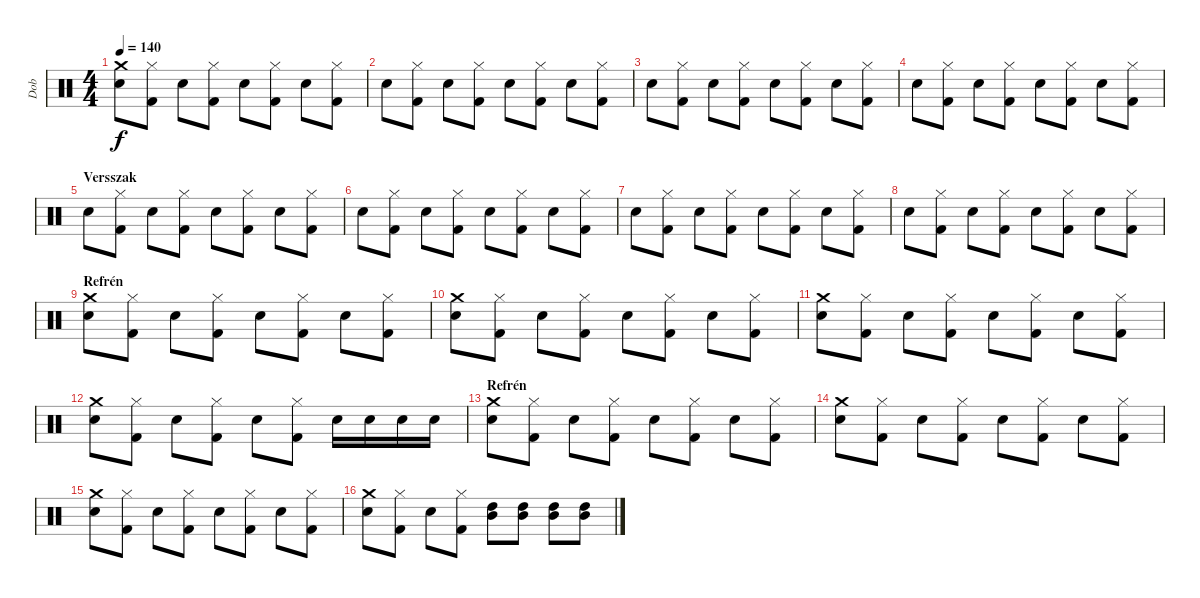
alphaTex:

\track ("Dob" "Dob") {instrument percussion}
\staff {score}
\articulation defaults
\ts (4 4)
\tempo 140
\clef neutral
\ks c
("Electric Snare (hit)" "Crash medium (hit)").8{dy f} ("Kick (hit) 2" "Hi-Hat (closed)").8 "Electric Snare (hit)".8 ("Kick (hit) 2" "Hi-Hat (closed)").8 "Electric Snare (hit)".8 ("Kick (hit) 2" "Hi-Hat (closed)").8 "Electric Snare (hit)".8 ("Kick (hit) 2" "Hi-Hat (closed)").8 |
"Electric Snare (hit)".8 ("Kick (hit) 2" "Hi-Hat (closed)").8 "Electric Snare (hit)".8 ("Kick (hit) 2" "Hi-Hat (closed)").8 "Electric Snare (hit)".8 ("Kick (hit) 2" "Hi-Hat (closed)").8 "Electric Snare (hit)".8 ("Kick (hit) 2" "Hi-Hat (closed)").8 |
"Electric Snare (hit)".8 ("Kick (hit) 2" "Hi-Hat (closed)").8 "Electric Snare (hit)".8 ("Kick (hit) 2" "Hi-Hat (closed)").8 "Electric Snare (hit)".8 ("Kick (hit) 2" "Hi-Hat (closed)").8 "Electric Snare (hit)".8 ("Kick (hit) 2" "Hi-Hat (closed)").8 |
"Electric Snare (hit)".8 ("Kick (hit) 2" "Hi-Hat (closed)").8 "Electric Snare (hit)".8 ("Kick (hit) 2" "Hi-Hat (closed)").8 "Electric Snare (hit)".8 ("Kick (hit) 2" "Hi-Hat (closed)").8 "Electric Snare (hit)".8 ("Kick (hit) 2" "Hi-Hat (closed)").8 |
\section ("" "Versszak")
"Electric Snare (hit)".8 ("Kick (hit) 2" "Hi-Hat (closed)").8 "Electric Snare (hit)".8 ("Kick (hit) 2" "Hi-Hat (closed)").8 "Electric Snare (hit)".8 ("Kick (hit) 2" "Hi-Hat (closed)").8 "Electric Snare (hit)".8 ("Kick (hit) 2" "Hi-Hat (closed)").8 |
"Electric Snare (hit)".8 ("Kick (hit) 2" "Hi-Hat (closed)").8 "Electric Snare (hit)".8 ("Kick (hit) 2" "Hi-Hat (closed)").8 "Electric Snare (hit)".8 ("Kick (hit) 2" "Hi-Hat (closed)").8 "Electric Snare (hit)".8 ("Kick (hit) 2" "Hi-Hat (closed)").8 |
"Electric Snare (hit)".8 ("Kick (hit) 2" "Hi-Hat (closed)").8 "Electric Snare (hit)".8 ("Kick (hit) 2" "Hi-Hat (closed)").8 "Electric Snare (hit)".8 ("Kick (hit) 2" "Hi-Hat (closed)").8 "Electric Snare (hit)".8 ("Kick (hit) 2" "Hi-Hat (closed)").8 |
"Electric Snare (hit)".8 ("Kick (hit) 2" "Hi-Hat (closed)").8 "Electric Snare (hit)".8 ("Kick (hit) 2" "Hi-Hat (closed)").8 "Electric Snare (hit)".8 ("Kick (hit) 2" "Hi-Hat (closed)").8 "Electric Snare (hit)".8 ("Kick (hit) 2" "Hi-Hat (closed)").8 |
\section ("" "Refrén")
("Electric Snare (hit)" "Crash medium (hit)").8 ("Kick (hit) 2" "Hi-Hat (closed)").8 "Electric Snare (hit)".8 ("Kick (hit) 2" "Hi-Hat (closed)").8 "Electric Snare (hit)".8 ("Kick (hit) 2" "Hi-Hat (closed)").8 "Electric Snare (hit)".8 ("Kick (hit) 2" "Hi-Hat (closed)").8 |
("Electric Snare (hit)" "Crash medium (hit)").8 ("Kick (hit) 2" "Hi-Hat (closed)").8 "Electric Snare (hit)".8 ("Kick (hit) 2" "Hi-Hat (closed)").8 "Electric Snare (hit)".8 ("Kick (hit) 2" "Hi-Hat (closed)").8 "Electric Snare (hit)".8 ("Kick (hit) 2" "Hi-Hat (closed)").8 |
("Electric Snare (hit)" "Crash medium (hit)").8 ("Kick (hit) 2" "Hi-Hat (closed)").8 "Electric Snare (hit)".8 ("Kick (hit) 2" "Hi-Hat (closed)").8 "Electric Snare (hit)".8 ("Kick (hit) 2" "Hi-Hat (closed)").8 "Electric Snare (hit)".8 ("Kick (hit) 2" "Hi-Hat (closed)").8 |
("Electric Snare (hit)" "Crash medium (hit)").8 ("Kick (hit) 2" "Hi-Hat (closed)").8 "Electric Snare (hit)".8 ("Kick (hit) 2" "Hi-Hat (closed)").8 "Electric Snare (hit)".8 ("Kick (hit) 2" "Hi-Hat (closed)").8 "Electric Snare (hit)".16 "Electric Snare (hit)".16 "Electric Snare (hit)".16 "Electric Snare (hit)".16 |
\section ("" "Refrén")
("Electric Snare (hit)" "Crash medium (hit)").8 ("Kick (hit) 2" "Hi-Hat (closed)").8 "Electric Snare (hit)".8 ("Kick (hit) 2" "Hi-Hat (closed)").8 "Electric Snare (hit)".8 ("Kick (hit) 2" "Hi-Hat (closed)").8 "Electric Snare (hit)".8 ("Kick (hit) 2" "Hi-Hat (closed)").8 |
("Electric Snare (hit)" "Crash medium (hit)").8 ("Kick (hit) 2" "Hi-Hat (closed)").8 "Electric Snare (hit)".8 ("Kick (hit) 2" "Hi-Hat (closed)").8 "Electric Snare (hit)".8 ("Kick (hit) 2" "Hi-Hat (closed)").8 "Electric Snare (hit)".8 ("Kick (hit) 2" "Hi-Hat (closed)").8 |
("Electric Snare (hit)" "Crash medium (hit)").8 ("Kick (hit) 2" "Hi-Hat (closed)").8 "Electric Snare (hit)".8 ("Kick (hit) 2" "Hi-Hat (closed)").8 "Electric Snare (hit)".8 ("Kick (hit) 2" "Hi-Hat (closed)").8 "Electric Snare (hit)".8 ("Kick (hit) 2" "Hi-Hat (closed)").8 |
("Electric Snare (hit)" "Crash medium (hit)").8 ("Kick (hit) 2" "Hi-Hat (closed)").8 "Electric Snare (hit)".8 ("Kick (hit) 2" "Hi-Hat (closed)").8 ("High Tom (hit)" "Mid Tom (hit)").8 ("High Tom (hit)" "Mid Tom (hit)").8 ("High Tom (hit)" "Mid Tom (hit)").8 ("High Tom (hit)" "Mid Tom (hit)").8
